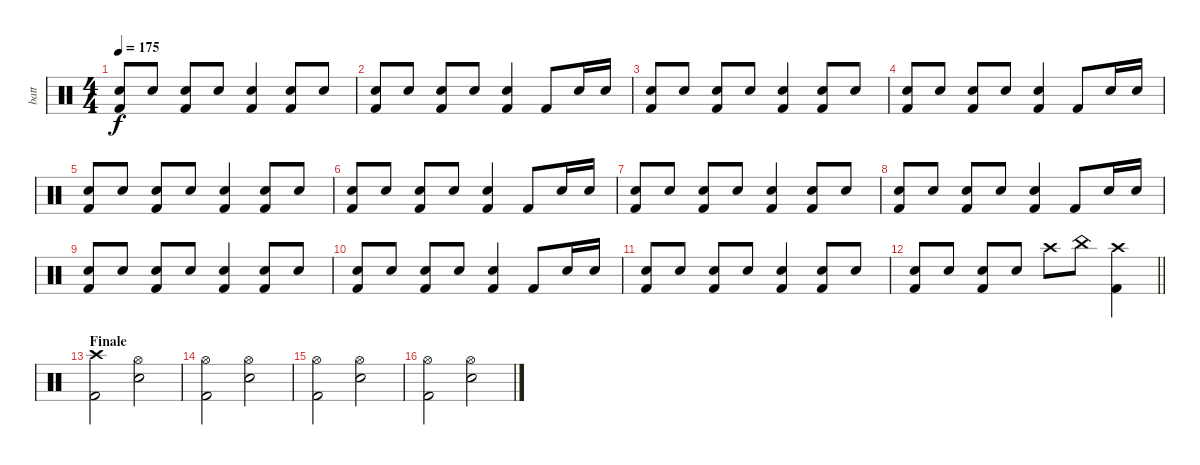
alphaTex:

\track ("batt" "batt") {instrument percussion}
\staff {score}
\articulation defaults
\ts (4 4)
\tempo 175
\clef neutral
\ks c
("Electric Snare (hit)" "Kick (hit) 2").8{dy f} "Electric Snare (hit)".8 ("Electric Snare (hit)" "Kick (hit) 2").8 "Electric Snare (hit)".8 ("Electric Snare (hit)" "Kick (hit) 2").4 ("Electric Snare (hit)" "Kick (hit) 2").8 "Electric Snare (hit)".8 |
("Electric Snare (hit)" "Kick (hit) 2").8 "Electric Snare (hit)".8 ("Electric Snare (hit)" "Kick (hit) 2").8 "Electric Snare (hit)".8 ("Electric Snare (hit)" "Kick (hit) 2").4 "Kick (hit) 2".8 "Electric Snare (hit)".16 "Electric Snare (hit)".16 |
("Electric Snare (hit)" "Kick (hit) 2").8 "Electric Snare (hit)".8 ("Electric Snare (hit)" "Kick (hit) 2").8 "Electric Snare (hit)".8 ("Electric Snare (hit)" "Kick (hit) 2").4 ("Electric Snare (hit)" "Kick (hit) 2").8 "Electric Snare (hit)".8 |
("Electric Snare (hit)" "Kick (hit) 2").8 "Electric Snare (hit)".8 ("Electric Snare (hit)" "Kick (hit) 2").8 "Electric Snare (hit)".8 ("Electric Snare (hit)" "Kick (hit) 2").4 "Kick (hit) 2".8 "Electric Snare (hit)".16 "Electric Snare (hit)".16 |
("Electric Snare (hit)" "Kick (hit) 2").8 "Electric Snare (hit)".8 ("Electric Snare (hit)" "Kick (hit) 2").8 "Electric Snare (hit)".8 ("Electric Snare (hit)" "Kick (hit) 2").4 ("Electric Snare (hit)" "Kick (hit) 2").8 "Electric Snare (hit)".8 |
("Electric Snare (hit)" "Kick (hit) 2").8 "Electric Snare (hit)".8 ("Electric Snare (hit)" "Kick (hit) 2").8 "Electric Snare (hit)".8 ("Electric Snare (hit)" "Kick (hit) 2").4 "Kick (hit) 2".8 "Electric Snare (hit)".16 "Electric Snare (hit)".16 |
("Electric Snare (hit)" "Kick (hit) 2").8 "Electric Snare (hit)".8 ("Electric Snare (hit)" "Kick (hit) 2").8 "Electric Snare (hit)".8 ("Electric Snare (hit)" "Kick (hit) 2").4 ("Electric Snare (hit)" "Kick (hit) 2").8 "Electric Snare (hit)".8 |
("Electric Snare (hit)" "Kick (hit) 2").8 "Electric Snare (hit)".8 ("Electric Snare (hit)" "Kick (hit) 2").8 "Electric Snare (hit)".8 ("Electric Snare (hit)" "Kick (hit) 2").4 "Kick (hit) 2".8 "Electric Snare (hit)".16 "Electric Snare (hit)".16 |
("Electric Snare (hit)" "Kick (hit) 2").8 "Electric Snare (hit)".8 ("Electric Snare (hit)" "Kick (hit) 2").8 "Electric Snare (hit)".8 ("Electric Snare (hit)" "Kick (hit) 2").4 ("Electric Snare (hit)" "Kick (hit) 2").8 "Electric Snare (hit)".8 |
("Electric Snare (hit)" "Kick (hit) 2").8 "Electric Snare (hit)".8 ("Electric Snare (hit)" "Kick (hit) 2").8 "Electric Snare (hit)".8 ("Electric Snare (hit)" "Kick (hit) 2").4 "Kick (hit) 2".8 "Electric Snare (hit)".16 "Electric Snare (hit)".16 |
("Electric Snare (hit)" "Kick (hit) 2").8 "Electric Snare (hit)".8 ("Electric Snare (hit)" "Kick (hit) 2").8 "Electric Snare (hit)".8 ("Electric Snare (hit)" "Kick (hit) 2").4 ("Electric Snare (hit)" "Kick (hit) 2").8 "Electric Snare (hit)".8 |
\barLineRight lightlight
("Electric Snare (hit)" "Kick (hit) 2").8 "Electric Snare (hit)".8 ("Electric Snare (hit)" "Kick (hit) 2").8 "Electric Snare (hit)".8 "Crash high (hit)".8 "China (hit)".8 ("Crash high (hit)" "Kick (hit) 2").4 |
\section ("" "Finale")
("Crash high (hit)" "Kick (hit) 2").2 ("Hi-Hat (open)" "Electric Snare (hit)").2 |
("Hi-Hat (open)" "Kick (hit) 2").2 ("Hi-Hat (open)" "Electric Snare (hit)").2 |
("Hi-Hat (open)" "Kick (hit) 2").2 ("Hi-Hat (open)" "Electric Snare (hit)").2 |
("Hi-Hat (open)" "Kick (hit) 2").2 ("Hi-Hat (open)" "Electric Snare (hit)").2
